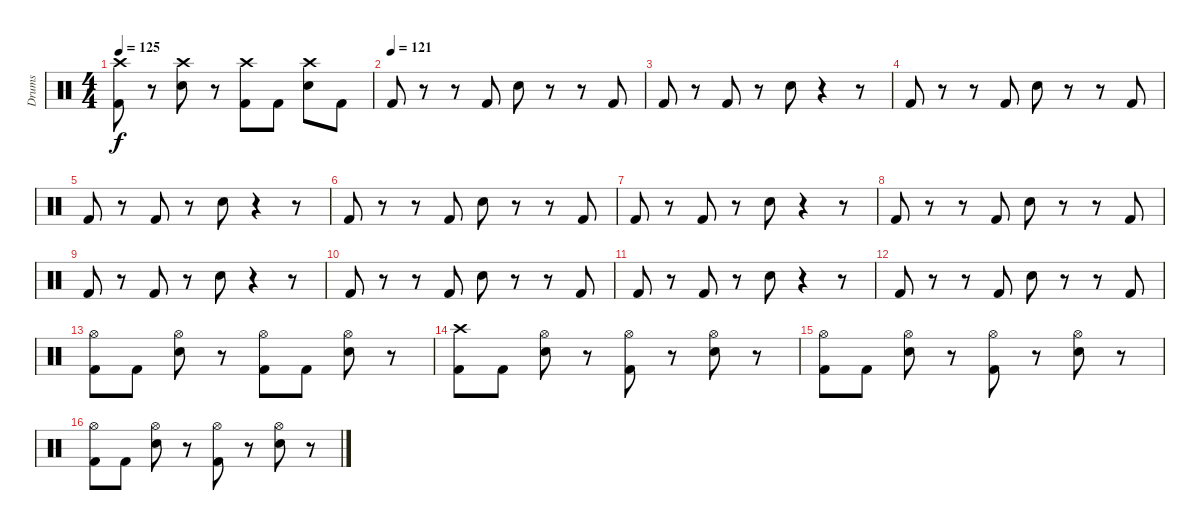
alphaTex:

\track ("Drums" "Drums") {instrument percussion}
\staff {score}
\articulation defaults
\ts (4 4)
\tempo 125
\clef neutral
\ks c
("Crash high (hit)" "Kick (hit) 2").8{dy f} r.8 ("Crash high (hit)" "Electric Snare (hit)").8 r.8 ("Crash high (hit)" "Kick (hit) 2").8 "Kick (hit) 2".8 ("Crash high (hit)" "Electric Snare (hit)").8 "Kick (hit) 2".8 |
\tempo (121)
"Kick (hit) 2".8 r.8 r.8 "Kick (hit) 2".8 "Electric Snare (hit)".8 r.8 r.8 "Kick (hit) 2".8 |
"Kick (hit) 2".8 r.8 "Kick (hit) 2".8 r.8 "Electric Snare (hit)".8 r.4 r.8 |
"Kick (hit) 2".8 r.8 r.8 "Kick (hit) 2".8 "Electric Snare (hit)".8 r.8 r.8 "Kick (hit) 2".8 |
"Kick (hit) 2".8 r.8 "Kick (hit) 2".8 r.8 "Electric Snare (hit)".8 r.4 r.8 |
"Kick (hit) 2".8 r.8 r.8 "Kick (hit) 2".8 "Electric Snare (hit)".8 r.8 r.8 "Kick (hit) 2".8 |
"Kick (hit) 2".8 r.8 "Kick (hit) 2".8 r.8 "Electric Snare (hit)".8 r.4 r.8 |
"Kick (hit) 2".8 r.8 r.8 "Kick (hit) 2".8 "Electric Snare (hit)".8 r.8 r.8 "Kick (hit) 2".8 |
"Kick (hit) 2".8 r.8 "Kick (hit) 2".8 r.8 "Electric Snare (hit)".8 r.4 r.8 |
"Kick (hit) 2".8 r.8 r.8 "Kick (hit) 2".8 "Electric Snare (hit)".8 r.8 r.8 "Kick (hit) 2".8 |
"Kick (hit) 2".8 r.8 "Kick (hit) 2".8 r.8 "Electric Snare (hit)".8 r.4 r.8 |
"Kick (hit) 2".8 r.8 r.8 "Kick (hit) 2".8 "Electric Snare (hit)".8 r.8 r.8 "Kick (hit) 2".8 |
("Hi-Hat (open)" "Kick (hit) 2").8 "Kick (hit) 2".8 ("Hi-Hat (open)" "Electric Snare (hit)").8 r.8 ("Hi-Hat (open)" "Kick (hit) 2").8 "Kick (hit) 2".8 ("Hi-Hat (open)" "Electric Snare (hit)").8 r.8 |
("Crash high (hit)" "Kick (hit) 2").8 "Kick (hit) 2".8 ("Hi-Hat (open)" "Electric Snare (hit)").8 r.8 ("Hi-Hat (open)" "Kick (hit) 2").8 r.8 ("Hi-Hat (open)" "Electric Snare (hit)").8 r.8 |
("Hi-Hat (open)" "Kick (hit) 2").8 "Kick (hit) 2".8 ("Hi-Hat (open)" "Electric Snare (hit)").8 r.8 ("Hi-Hat (open)" "Kick (hit) 2").8 r.8 ("Hi-Hat (open)" "Electric Snare (hit)").8 r.8 |
("Hi-Hat (open)" "Kick (hit) 2").8 "Kick (hit) 2".8 ("Hi-Hat (open)" "Electric Snare (hit)").8 r.8 ("Hi-Hat (open)" "Kick (hit) 2").8 r.8 ("Hi-Hat (open)" "Electric Snare (hit)").8 r.8
